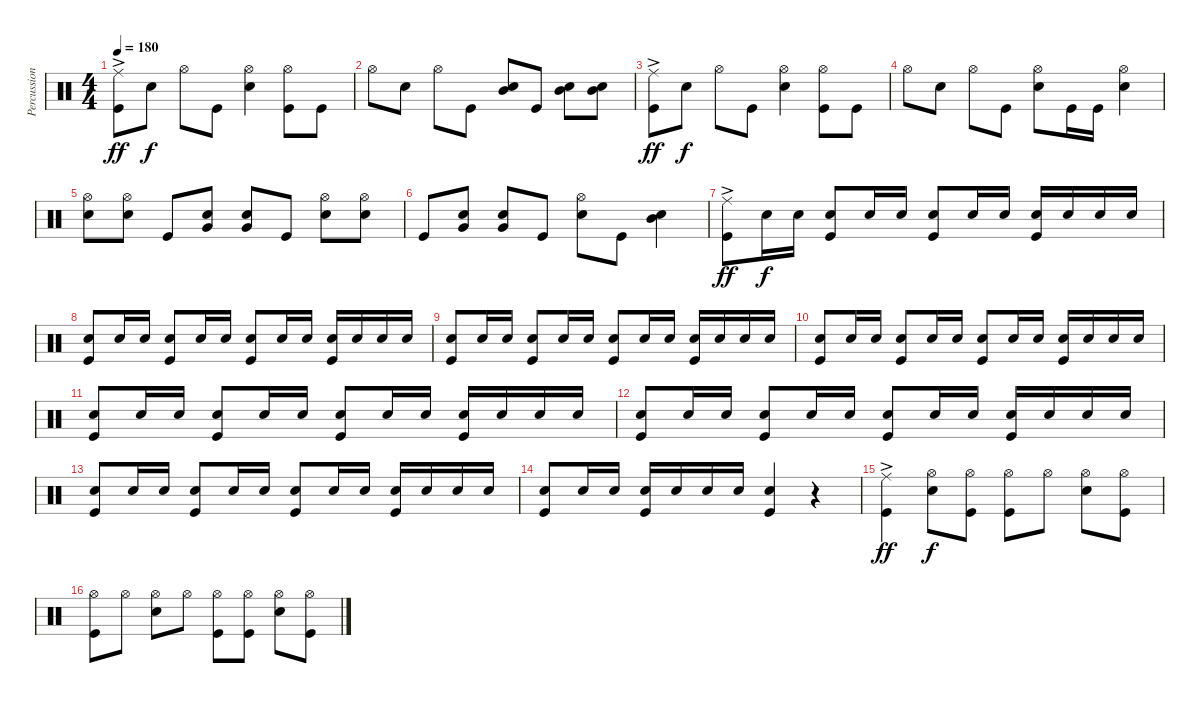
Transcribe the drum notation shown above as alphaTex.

\track ("Percussion" "Percussion") {instrument percussion}
\staff {score}
\articulation defaults
\ts (4 4)
\tempo 180
\clef neutral
\ks c
("Ride (middle)"{ac} "Kick (hit)").8{dy ff} "Snare (hit) 2".8{dy f} "Hi-Hat (open)".8 "Kick (hit)".8 ("Hi-Hat (open)" "Snare (hit) 2").4 ("Hi-Hat (open)" "Kick (hit)").8 "Kick (hit)".8 |
"Hi-Hat (open)".8 "Snare (hit) 2".8 "Hi-Hat (open)".8 "Kick (hit)".8 ("Mid Tom (hit)" "Snare (hit) 2").8 "Kick (hit)".8 ("Mid Tom (hit)" "Snare (hit) 2").8 ("Mid Tom (hit)" "Snare (hit) 2").8 |
("Ride (middle)"{ac} "Kick (hit)").8{dy ff} "Snare (hit) 2".8{dy f} "Hi-Hat (open)".8 "Kick (hit)".8 ("Hi-Hat (open)" "Snare (hit) 2").4 ("Hi-Hat (open)" "Kick (hit)").8 "Kick (hit)".8 |
"Hi-Hat (open)".8 "Snare (hit) 2".8 "Hi-Hat (open)".8 "Kick (hit)".8 ("Hi-Hat (open)" "Snare (hit) 2").8 "Kick (hit)".16 "Kick (hit)".16 ("Hi-Hat (open)" "Snare (hit) 2").4 |
("Hi-Hat (open)" "Snare (hit) 2").8 ("Hi-Hat (open)" "Snare (hit) 2").8 "Kick (hit)".8 ("Snare (hit) 2" "Very Low Tom (hit)").8 ("Snare (hit) 2" "Very Low Tom (hit)").8 "Kick (hit)".8 ("Hi-Hat (open)" "Snare (hit) 2").8 ("Hi-Hat (open)" "Snare (hit) 2").8 |
"Kick (hit)".8 ("Snare (hit) 2" "Very Low Tom (hit)").8 ("Snare (hit) 2" "Very Low Tom (hit)").8 "Kick (hit)".8 ("Hi-Hat (open)" "Snare (hit) 2").8 "Kick (hit)".8 ("Mid Tom (hit)" "Snare (hit) 2").4 |
("Ride (middle)"{ac} "Kick (hit)").8{dy ff} "Snare (hit) 2".16{dy f} "Snare (hit) 2".16 ("Snare (hit) 2" "Kick (hit)").8 "Snare (hit) 2".16 "Snare (hit) 2".16 ("Snare (hit) 2" "Kick (hit)").8 "Snare (hit) 2".16 "Snare (hit) 2".16 ("Snare (hit) 2" "Kick (hit)").16 "Snare (hit) 2".16 "Snare (hit) 2".16 "Snare (hit) 2".16 |
("Snare (hit) 2" "Kick (hit)").8 "Snare (hit) 2".16 "Snare (hit) 2".16 ("Snare (hit) 2" "Kick (hit)").8 "Snare (hit) 2".16 "Snare (hit) 2".16 ("Snare (hit) 2" "Kick (hit)").8 "Snare (hit) 2".16 "Snare (hit) 2".16 ("Snare (hit) 2" "Kick (hit)").16 "Snare (hit) 2".16 "Snare (hit) 2".16 "Snare (hit) 2".16 |
("Snare (hit) 2" "Kick (hit)").8 "Snare (hit) 2".16 "Snare (hit) 2".16 ("Snare (hit) 2" "Kick (hit)").8 "Snare (hit) 2".16 "Snare (hit) 2".16 ("Snare (hit) 2" "Kick (hit)").8 "Snare (hit) 2".16 "Snare (hit) 2".16 ("Snare (hit) 2" "Kick (hit)").16 "Snare (hit) 2".16 "Snare (hit) 2".16 "Snare (hit) 2".16 |
("Snare (hit) 2" "Kick (hit)").8 "Snare (hit) 2".16 "Snare (hit) 2".16 ("Snare (hit) 2" "Kick (hit)").8 "Snare (hit) 2".16 "Snare (hit) 2".16 ("Snare (hit) 2" "Kick (hit)").8 "Snare (hit) 2".16 "Snare (hit) 2".16 ("Snare (hit) 2" "Kick (hit)").16 "Snare (hit) 2".16 "Snare (hit) 2".16 "Snare (hit) 2".16 |
("Snare (hit) 2" "Kick (hit)").8 "Snare (hit) 2".16 "Snare (hit) 2".16 ("Snare (hit) 2" "Kick (hit)").8 "Snare (hit) 2".16 "Snare (hit) 2".16 ("Snare (hit) 2" "Kick (hit)").8 "Snare (hit) 2".16 "Snare (hit) 2".16 ("Snare (hit) 2" "Kick (hit)").16 "Snare (hit) 2".16 "Snare (hit) 2".16 "Snare (hit) 2".16 |
("Snare (hit) 2" "Kick (hit)").8 "Snare (hit) 2".16 "Snare (hit) 2".16 ("Snare (hit) 2" "Kick (hit)").8 "Snare (hit) 2".16 "Snare (hit) 2".16 ("Snare (hit) 2" "Kick (hit)").8 "Snare (hit) 2".16 "Snare (hit) 2".16 ("Snare (hit) 2" "Kick (hit)").16 "Snare (hit) 2".16 "Snare (hit) 2".16 "Snare (hit) 2".16 |
("Snare (hit) 2" "Kick (hit)").8 "Snare (hit) 2".16 "Snare (hit) 2".16 ("Snare (hit) 2" "Kick (hit)").8 "Snare (hit) 2".16 "Snare (hit) 2".16 ("Snare (hit) 2" "Kick (hit)").8 "Snare (hit) 2".16 "Snare (hit) 2".16 ("Snare (hit) 2" "Kick (hit)").16 "Snare (hit) 2".16 "Snare (hit) 2".16 "Snare (hit) 2".16 |
("Snare (hit) 2" "Kick (hit)").8 "Snare (hit) 2".16 "Snare (hit) 2".16 ("Snare (hit) 2" "Kick (hit)").16 "Snare (hit) 2".16 "Snare (hit) 2".16 "Snare (hit) 2".16 ("Snare (hit) 2" "Kick (hit)").4 r.4 |
("Ride (middle)"{ac} "Kick (hit)").4{dy ff} ("Hi-Hat (open)" "Snare (hit) 2").8{dy f} ("Hi-Hat (open)" "Kick (hit)").8 ("Hi-Hat (open)" "Kick (hit)").8 "Hi-Hat (open)".8 ("Hi-Hat (open)" "Snare (hit) 2").8 ("Hi-Hat (open)" "Kick (hit)").8 |
("Hi-Hat (open)" "Kick (hit)").8 "Hi-Hat (open)".8 ("Hi-Hat (open)" "Snare (hit) 2").8 "Hi-Hat (open)".8 ("Hi-Hat (open)" "Kick (hit)").8 ("Hi-Hat (open)" "Kick (hit)").8 ("Hi-Hat (open)" "Snare (hit) 2").8 ("Hi-Hat (open)" "Kick (hit)").8
